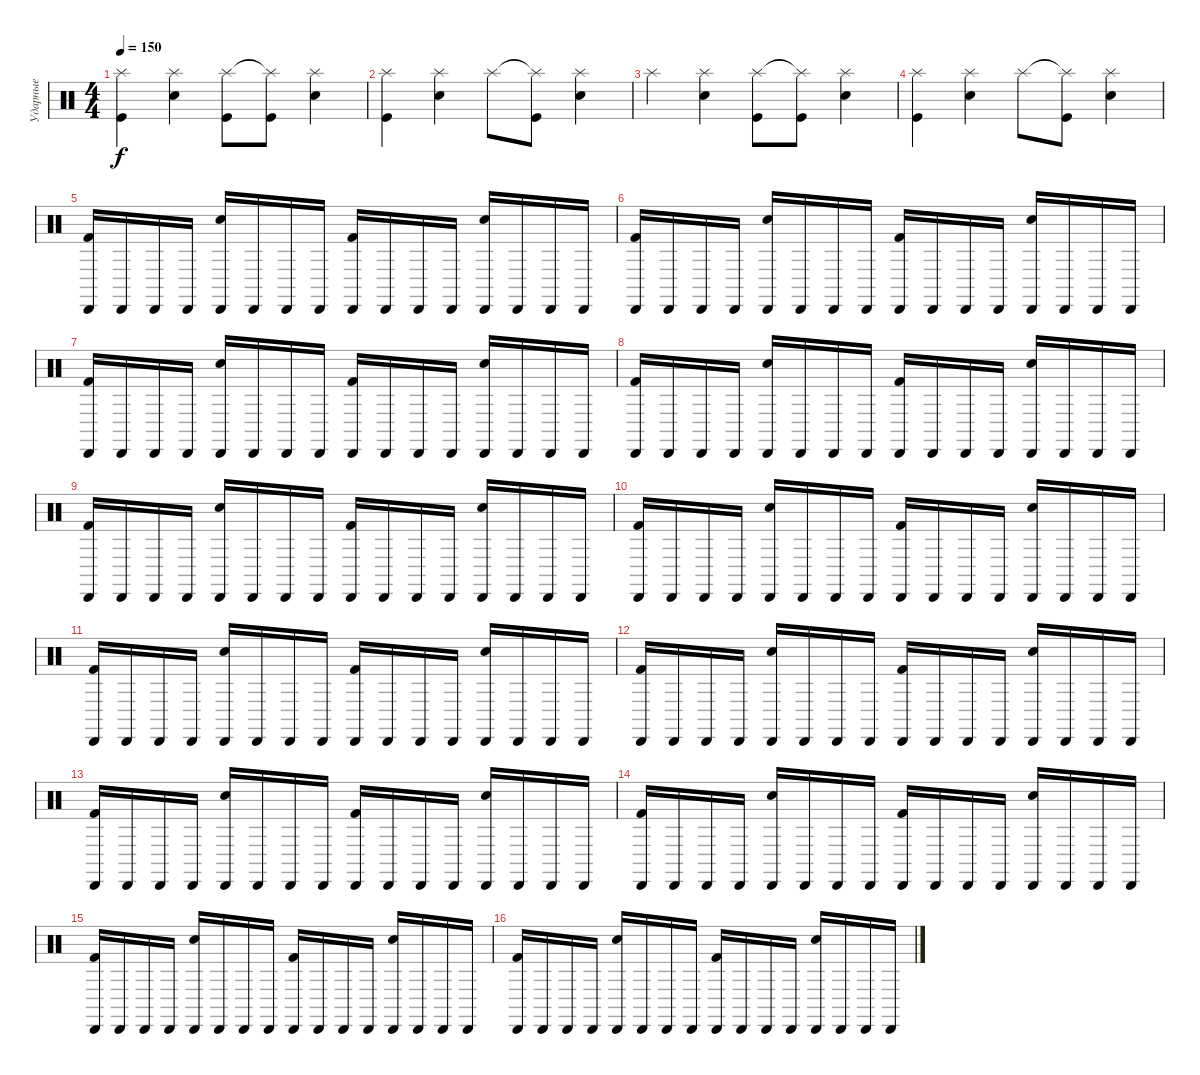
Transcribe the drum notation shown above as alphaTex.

\track ("Ударные" "Ударные") {instrument percussion}
\staff {score}
\articulation defaults
\ts (4 4)
\tempo 150
\clef neutral
\ks c
("Splash (hit)" "Kick (hit)").4{dy f} ("Splash (hit)" "Snare (hit) 2").4 ("Splash (hit)" "Kick (hit)").8 ("Splash (hit)"{t} "Kick (hit)").8 ("Splash (hit)" "Snare (hit) 2").4 |
("Splash (hit)" "Kick (hit)").4 ("Splash (hit)" "Snare (hit) 2").4 "Splash (hit)".8 ("Splash (hit)"{t} "Kick (hit)").8 ("Splash (hit)" "Snare (hit) 2").4 |
"Splash (hit)".4 ("Splash (hit)" "Snare (hit) 2").4 ("Splash (hit)" "Kick (hit)").8 ("Splash (hit)"{t} "Kick (hit)").8 ("Splash (hit)" "Snare (hit) 2").4 |
("Splash (hit)" "Kick (hit)").4 ("Splash (hit)" "Snare (hit) 2").4 "Splash (hit)".8 ("Splash (hit)"{t} "Kick (hit)").8 ("Splash (hit)" "Snare (hit) 2").4 |
("Kick (hit) 2" "Cabasa (hit)").16 "Cabasa (hit)".16 "Cabasa (hit)".16 "Cabasa (hit)".16 ("Snare (hit) 2" "Cabasa (hit)").16 "Cabasa (hit)".16 "Cabasa (hit)".16 "Cabasa (hit)".16 ("Kick (hit) 2" "Cabasa (hit)").16 "Cabasa (hit)".16 "Cabasa (hit)".16 "Cabasa (hit)".16 ("Snare (hit) 2" "Cabasa (hit)").16 "Cabasa (hit)".16 "Cabasa (hit)".16 "Cabasa (hit)".16 |
("Kick (hit) 2" "Cabasa (hit)").16 "Cabasa (hit)".16 "Cabasa (hit)".16 "Cabasa (hit)".16 ("Snare (hit) 2" "Cabasa (hit)").16 "Cabasa (hit)".16 "Cabasa (hit)".16 "Cabasa (hit)".16 ("Kick (hit) 2" "Cabasa (hit)").16 "Cabasa (hit)".16 "Cabasa (hit)".16 "Cabasa (hit)".16 ("Snare (hit) 2" "Cabasa (hit)").16 "Cabasa (hit)".16 "Cabasa (hit)".16 "Cabasa (hit)".16 |
("Kick (hit) 2" "Cabasa (hit)").16 "Cabasa (hit)".16 "Cabasa (hit)".16 "Cabasa (hit)".16 ("Snare (hit) 2" "Cabasa (hit)").16 "Cabasa (hit)".16 "Cabasa (hit)".16 "Cabasa (hit)".16 ("Kick (hit) 2" "Cabasa (hit)").16 "Cabasa (hit)".16 "Cabasa (hit)".16 "Cabasa (hit)".16 ("Snare (hit) 2" "Cabasa (hit)").16 "Cabasa (hit)".16 "Cabasa (hit)".16 "Cabasa (hit)".16 |
("Kick (hit) 2" "Cabasa (hit)").16 "Cabasa (hit)".16 "Cabasa (hit)".16 "Cabasa (hit)".16 ("Snare (hit) 2" "Cabasa (hit)").16 "Cabasa (hit)".16 "Cabasa (hit)".16 "Cabasa (hit)".16 ("Kick (hit) 2" "Cabasa (hit)").16 "Cabasa (hit)".16 "Cabasa (hit)".16 "Cabasa (hit)".16 ("Snare (hit) 2" "Cabasa (hit)").16 "Cabasa (hit)".16 "Cabasa (hit)".16 "Cabasa (hit)".16 |
("Kick (hit) 2" "Cabasa (hit)").16 "Cabasa (hit)".16 "Cabasa (hit)".16 "Cabasa (hit)".16 ("Snare (hit) 2" "Cabasa (hit)").16 "Cabasa (hit)".16 "Cabasa (hit)".16 "Cabasa (hit)".16 ("Kick (hit) 2" "Cabasa (hit)").16 "Cabasa (hit)".16 "Cabasa (hit)".16 "Cabasa (hit)".16 ("Snare (hit) 2" "Cabasa (hit)").16 "Cabasa (hit)".16 "Cabasa (hit)".16 "Cabasa (hit)".16 |
("Kick (hit) 2" "Cabasa (hit)").16 "Cabasa (hit)".16 "Cabasa (hit)".16 "Cabasa (hit)".16 ("Snare (hit) 2" "Cabasa (hit)").16 "Cabasa (hit)".16 "Cabasa (hit)".16 "Cabasa (hit)".16 ("Kick (hit) 2" "Cabasa (hit)").16 "Cabasa (hit)".16 "Cabasa (hit)".16 "Cabasa (hit)".16 ("Snare (hit) 2" "Cabasa (hit)").16 "Cabasa (hit)".16 "Cabasa (hit)".16 "Cabasa (hit)".16 |
("Kick (hit) 2" "Cabasa (hit)").16 "Cabasa (hit)".16 "Cabasa (hit)".16 "Cabasa (hit)".16 ("Snare (hit) 2" "Cabasa (hit)").16 "Cabasa (hit)".16 "Cabasa (hit)".16 "Cabasa (hit)".16 ("Kick (hit) 2" "Cabasa (hit)").16 "Cabasa (hit)".16 "Cabasa (hit)".16 "Cabasa (hit)".16 ("Snare (hit) 2" "Cabasa (hit)").16 "Cabasa (hit)".16 "Cabasa (hit)".16 "Cabasa (hit)".16 |
("Kick (hit) 2" "Cabasa (hit)").16 "Cabasa (hit)".16 "Cabasa (hit)".16 "Cabasa (hit)".16 ("Snare (hit) 2" "Cabasa (hit)").16 "Cabasa (hit)".16 "Cabasa (hit)".16 "Cabasa (hit)".16 ("Kick (hit) 2" "Cabasa (hit)").16 "Cabasa (hit)".16 "Cabasa (hit)".16 "Cabasa (hit)".16 ("Snare (hit) 2" "Cabasa (hit)").16 "Cabasa (hit)".16 "Cabasa (hit)".16 "Cabasa (hit)".16 |
("Kick (hit) 2" "Cabasa (hit)").16 "Cabasa (hit)".16 "Cabasa (hit)".16 "Cabasa (hit)".16 ("Snare (hit) 2" "Cabasa (hit)").16 "Cabasa (hit)".16 "Cabasa (hit)".16 "Cabasa (hit)".16 ("Kick (hit) 2" "Cabasa (hit)").16 "Cabasa (hit)".16 "Cabasa (hit)".16 "Cabasa (hit)".16 ("Snare (hit) 2" "Cabasa (hit)").16 "Cabasa (hit)".16 "Cabasa (hit)".16 "Cabasa (hit)".16 |
("Kick (hit) 2" "Cabasa (hit)").16 "Cabasa (hit)".16 "Cabasa (hit)".16 "Cabasa (hit)".16 ("Snare (hit) 2" "Cabasa (hit)").16 "Cabasa (hit)".16 "Cabasa (hit)".16 "Cabasa (hit)".16 ("Kick (hit) 2" "Cabasa (hit)").16 "Cabasa (hit)".16 "Cabasa (hit)".16 "Cabasa (hit)".16 ("Snare (hit) 2" "Cabasa (hit)").16 "Cabasa (hit)".16 "Cabasa (hit)".16 "Cabasa (hit)".16 |
("Kick (hit) 2" "Cabasa (hit)").16 "Cabasa (hit)".16 "Cabasa (hit)".16 "Cabasa (hit)".16 ("Snare (hit) 2" "Cabasa (hit)").16 "Cabasa (hit)".16 "Cabasa (hit)".16 "Cabasa (hit)".16 ("Kick (hit) 2" "Cabasa (hit)").16 "Cabasa (hit)".16 "Cabasa (hit)".16 "Cabasa (hit)".16 ("Snare (hit) 2" "Cabasa (hit)").16 "Cabasa (hit)".16 "Cabasa (hit)".16 "Cabasa (hit)".16 |
("Kick (hit) 2" "Cabasa (hit)").16 "Cabasa (hit)".16 "Cabasa (hit)".16 "Cabasa (hit)".16 ("Snare (hit) 2" "Cabasa (hit)").16 "Cabasa (hit)".16 "Cabasa (hit)".16 "Cabasa (hit)".16 ("Kick (hit) 2" "Cabasa (hit)").16 "Cabasa (hit)".16 "Cabasa (hit)".16 "Cabasa (hit)".16 ("Snare (hit) 2" "Cabasa (hit)").16 "Cabasa (hit)".16 "Cabasa (hit)".16 "Cabasa (hit)".16
